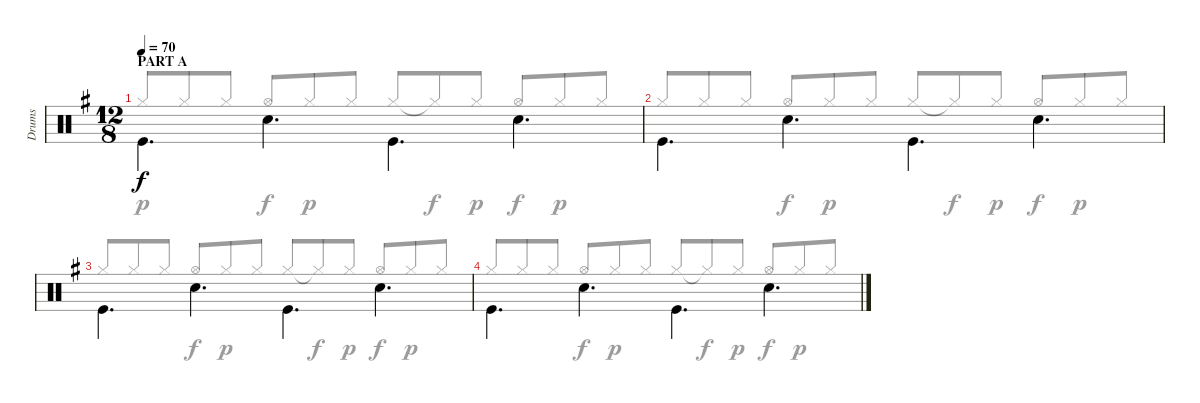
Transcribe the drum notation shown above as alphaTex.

\track ("Drums" "Drums") {instrument percussion}
\staff {score}
\articulation defaults
\voice
\ts (12 8)
\section ("" "PART A")
\tempo 70
\clef neutral
\ks eminor "Kick (hit)".4{d dy f beam Down} "Snare (hit) 2".4{d beam Down} "Kick (hit)".4{d beam Down} "Snare (hit) 2".4{d beam Down}
|
"Kick (hit)".4{d beam Down} "Snare (hit) 2".4{d beam Down} "Kick (hit)".4{d beam Down} "Snare (hit) 2".4{d beam Down} |
"Kick (hit)".4{d beam Down} "Snare (hit) 2".4{d beam Down} "Kick (hit)".4{d beam Down} "Snare (hit) 2".4{d beam Down} |
"Kick (hit)".4{d beam Down} "Snare (hit) 2".4{d beam Down} "Kick (hit)".4{d beam Down} "Snare (hit) 2".4{d beam Down}
\voice
\clef neutral
\ottava regular
\simile none
\ks eminor "Hi-Hat (closed)".8{dy p beam Up} "Hi-Hat (closed)".8{beam Up} "Hi-Hat (closed)".8{beam Up} "Hi-Hat (open)".8{dy f beam Up} "Hi-Hat (closed)".8{dy p beam Up} "Hi-Hat (closed)".8{beam Up} "Hi-Hat (closed)".8{beam Up} "Hi-Hat (closed)"{t}.8{dy f beam Up} "Hi-Hat (closed)".8{dy p beam Up} "Hi-Hat (open)".8{dy f beam Up} "Hi-Hat (closed)".8{dy p beam Up} "Hi-Hat (closed)".8{beam Up}
|
"Hi-Hat (closed)".8{beam Up} "Hi-Hat (closed)".8{beam Up} "Hi-Hat (closed)".8{beam Up} "Hi-Hat (open)".8{dy f beam Up} "Hi-Hat (closed)".8{dy p beam Up} "Hi-Hat (closed)".8{beam Up} "Hi-Hat (closed)".8{beam Up} "Hi-Hat (closed)"{t}.8{dy f beam Up} "Hi-Hat (closed)".8{dy p beam Up} "Hi-Hat (open)".8{dy f beam Up} "Hi-Hat (closed)".8{dy p beam Up} "Hi-Hat (closed)".8{beam Up} |
"Hi-Hat (closed)".8{beam Up} "Hi-Hat (closed)".8{beam Up} "Hi-Hat (closed)".8{beam Up} "Hi-Hat (open)".8{dy f beam Up} "Hi-Hat (closed)".8{dy p beam Up} "Hi-Hat (closed)".8{beam Up} "Hi-Hat (closed)".8{beam Up} "Hi-Hat (closed)"{t}.8{dy f beam Up} "Hi-Hat (closed)".8{dy p beam Up} "Hi-Hat (open)".8{dy f beam Up} "Hi-Hat (closed)".8{dy p beam Up} "Hi-Hat (closed)".8{beam Up} |
"Hi-Hat (closed)".8{beam Up} "Hi-Hat (closed)".8{beam Up} "Hi-Hat (closed)".8{beam Up} "Hi-Hat (open)".8{dy f beam Up} "Hi-Hat (closed)".8{dy p beam Up} "Hi-Hat (closed)".8{beam Up} "Hi-Hat (closed)".8{beam Up} "Hi-Hat (closed)"{t}.8{dy f beam Up} "Hi-Hat (closed)".8{dy p beam Up} "Hi-Hat (open)".8{dy f beam Up} "Hi-Hat (closed)".8{dy p beam Up} "Hi-Hat (closed)".8{beam Up}
